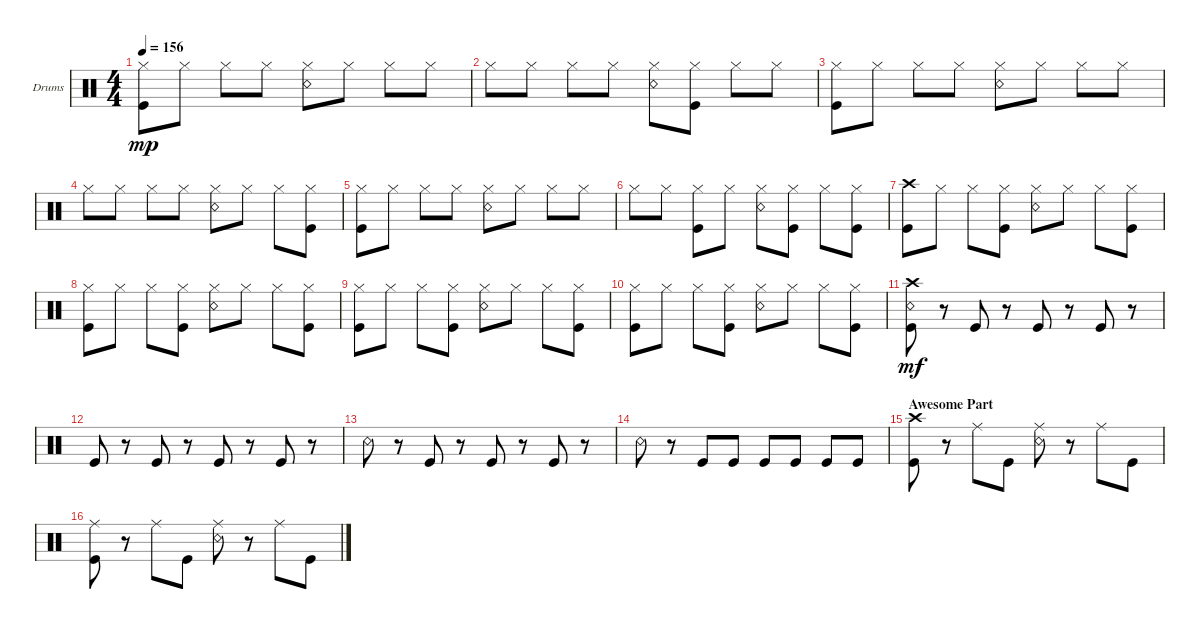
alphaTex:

\defaultSystemsLayout 4
\bracketExtendMode groupsimilarinstruments
\firstSystemTrackNameOrientation horizontal
\otherSystemsTrackNameOrientation horizontal
\track ("Drumkit" "Drums") {instrument percussion}
\staff {score}
\articulation defaults
\ts (4 4)
\tempo 156
\clef neutral
\ks c
("Hi-Hat (closed)" "Kick (hit)").8{dy mp} "Hi-Hat (closed)".8 "Hi-Hat (closed)".8 "Hi-Hat (closed)".8 ("Hi-Hat (closed)" "Snare (rim shot)").8 "Hi-Hat (closed)".8 "Hi-Hat (closed)".8 "Hi-Hat (closed)".8 |
"Hi-Hat (closed)".8 "Hi-Hat (closed)".8 "Hi-Hat (closed)".8 "Hi-Hat (closed)".8 ("Hi-Hat (closed)" "Snare (rim shot)").8 ("Hi-Hat (closed)" "Kick (hit)").8 "Hi-Hat (closed)".8 "Hi-Hat (closed)".8 |
("Hi-Hat (closed)" "Kick (hit)").8 "Hi-Hat (closed)".8 "Hi-Hat (closed)".8 "Hi-Hat (closed)".8 ("Hi-Hat (closed)" "Snare (rim shot)").8 "Hi-Hat (closed)".8 "Hi-Hat (closed)".8 "Hi-Hat (closed)".8 |
"Hi-Hat (closed)".8 "Hi-Hat (closed)".8 "Hi-Hat (closed)".8 "Hi-Hat (closed)".8 ("Hi-Hat (closed)" "Snare (rim shot)").8 "Hi-Hat (closed)".8 "Hi-Hat (closed)".8 ("Hi-Hat (closed)" "Kick (hit)").8 |
("Hi-Hat (closed)" "Kick (hit)").8 "Hi-Hat (closed)".8 "Hi-Hat (closed)".8 "Hi-Hat (closed)".8 ("Hi-Hat (closed)" "Snare (rim shot)").8 "Hi-Hat (closed)".8 "Hi-Hat (closed)".8 "Hi-Hat (closed)".8 |
"Hi-Hat (closed)".8 "Hi-Hat (closed)".8 ("Hi-Hat (closed)" "Kick (hit)").8 "Hi-Hat (closed)".8 ("Hi-Hat (closed)" "Snare (rim shot)").8 ("Hi-Hat (closed)" "Kick (hit)").8 "Hi-Hat (closed)".8 ("Hi-Hat (closed)" "Kick (hit)").8 |
("Kick (hit)" "Crash high (hit)").8 "Hi-Hat (closed)".8 "Hi-Hat (closed)".8 ("Hi-Hat (closed)" "Kick (hit)").8 ("Hi-Hat (closed)" "Snare (rim shot)").8 "Hi-Hat (closed)".8 "Hi-Hat (closed)".8 ("Hi-Hat (closed)" "Kick (hit)").8 |
("Hi-Hat (closed)" "Kick (hit)").8 "Hi-Hat (closed)".8 "Hi-Hat (closed)".8 ("Hi-Hat (closed)" "Kick (hit)").8 ("Hi-Hat (closed)" "Snare (rim shot)").8 "Hi-Hat (closed)".8 "Hi-Hat (closed)".8 ("Hi-Hat (closed)" "Kick (hit)").8 |
("Hi-Hat (closed)" "Kick (hit)").8 "Hi-Hat (closed)".8 "Hi-Hat (closed)".8 ("Hi-Hat (closed)" "Kick (hit)").8 ("Hi-Hat (closed)" "Snare (rim shot)").8 "Hi-Hat (closed)".8 "Hi-Hat (closed)".8 ("Hi-Hat (closed)" "Kick (hit)").8 |
("Hi-Hat (closed)" "Kick (hit)").8 "Hi-Hat (closed)".8 "Hi-Hat (closed)".8 ("Hi-Hat (closed)" "Kick (hit)").8 ("Hi-Hat (closed)" "Snare (rim shot)").8 "Hi-Hat (closed)".8 "Hi-Hat (closed)".8 ("Hi-Hat (closed)" "Kick (hit)").8 |
("Crash high (hit)" "Snare (rim shot)" "Kick (hit)").8{dy mf} r.8 "Kick (hit)".8 r.8 "Kick (hit)".8 r.8 "Kick (hit)".8 r.8 |
"Kick (hit)".8 r.8 "Kick (hit)".8 r.8 "Kick (hit)".8 r.8 "Kick (hit)".8 r.8 |
"Snare (rim shot)".8 r.8 "Kick (hit)".8 r.8 "Kick (hit)".8 r.8 "Kick (hit)".8 r.8 |
"Snare (rim shot)".8 r.8 "Kick (hit)".8 "Kick (hit)".8 "Kick (hit)".8 "Kick (hit)".8 "Kick (hit)".8 "Kick (hit)".8 |
\section ("" "Awesome Part")
("Crash high (hit)" "Kick (hit)").8 r.8 "Ride (middle)".8 "Kick (hit)".8 ("Ride (middle)" "Snare (rim shot)").8 r.8 "Ride (middle)".8 "Kick (hit)".8 |
("Kick (hit)" "Ride (middle)").8 r.8 "Ride (middle)".8 "Kick (hit)".8 ("Ride (middle)" "Snare (rim shot)").8 r.8 "Ride (middle)".8 "Kick (hit)".8
